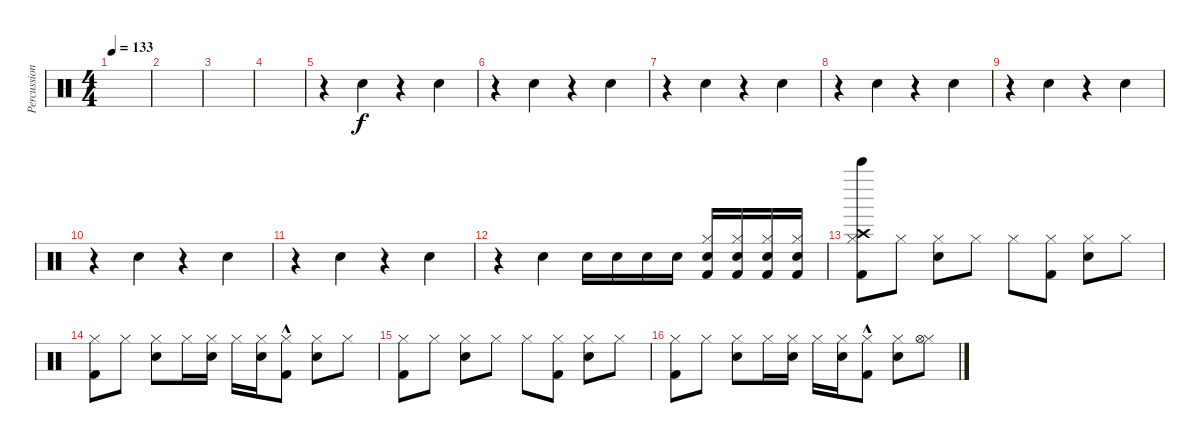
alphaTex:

\track ("Percussion" "Percussion") {instrument percussion}
\staff {score}
\articulation defaults
\ts (4 4)
\tempo 133
\clef neutral
\ks c
|
|
|
|
r.4 "Hand Clap (hit)".4 r.4 "Hand Clap (hit)".4 |
r.4 "Hand Clap (hit)".4 r.4 "Hand Clap (hit)".4 |
r.4 "Hand Clap (hit)".4 r.4 "Hand Clap (hit)".4 |
r.4 "Hand Clap (hit)".4 r.4 "Hand Clap (hit)".4 |
r.4 "Hand Clap (hit)".4 r.4 "Hand Clap (hit)".4 |
r.4 "Hand Clap (hit)".4 r.4 "Hand Clap (hit)".4 |
r.4 "Hand Clap (hit)".4 r.4 "Hand Clap (hit)".4 |
r.4 "Hand Clap (hit)".4 "Snare (hit) 2".16 "Snare (hit) 2".16 "Snare (hit) 2".16 "Snare (hit) 2".16 ("Hi-Hat (closed)" "Snare (hit) 2" "Kick (hit) 2").16 ("Hi-Hat (closed)" "Snare (hit) 2" "Kick (hit) 2").16 ("Hi-Hat (closed)" "Snare (hit) 2" "Kick (hit) 2").16 ("Hi-Hat (closed)" "Snare (hit) 2" "Kick (hit) 2").16 |
("Hi-Hat (closed)" "Bell Tree (hit)" "Crash high (hit)" "Kick (hit) 2").8 "Hi-Hat (closed)".8 ("Hi-Hat (closed)" "Snare (hit) 2").8 "Hi-Hat (closed)".8 "Hi-Hat (closed)".8 ("Hi-Hat (closed)" "Kick (hit) 2").8 ("Hi-Hat (closed)" "Snare (hit) 2").8 "Hi-Hat (closed)".8 |
("Hi-Hat (closed)" "Kick (hit) 2").8 "Hi-Hat (closed)".8 ("Hi-Hat (closed)" "Snare (hit) 2").8 "Hi-Hat (closed)".16 ("Hi-Hat (closed)" "Snare (hit) 2").16 "Hi-Hat (closed)".16 ("Hi-Hat (closed)" "Snare (hit) 2").16 ("Hi-Hat (closed)" "Kick (hit) 2"{hac}).8 ("Hi-Hat (closed)" "Snare (hit) 2").8 "Hi-Hat (closed)".8 |
("Hi-Hat (closed)" "Kick (hit) 2").8 "Hi-Hat (closed)".8 ("Hi-Hat (closed)" "Snare (hit) 2").8 "Hi-Hat (closed)".8 "Hi-Hat (closed)".8 ("Hi-Hat (closed)" "Kick (hit) 2").8 ("Hi-Hat (closed)" "Snare (hit) 2").8 "Hi-Hat (closed)".8 |
("Hi-Hat (closed)" "Kick (hit) 2").8 "Hi-Hat (closed)".8 ("Hi-Hat (closed)" "Snare (hit) 2").8 "Hi-Hat (closed)".16 ("Hi-Hat (closed)" "Snare (hit) 2").16 "Hi-Hat (closed)".16 ("Hi-Hat (closed)" "Snare (hit) 2").16 ("Hi-Hat (closed)" "Kick (hit) 2"{hac}).8 ("Hi-Hat (closed)" "Snare (hit) 2").8 ("Hi-Hat (closed)" "Hi-Hat (open)").8
